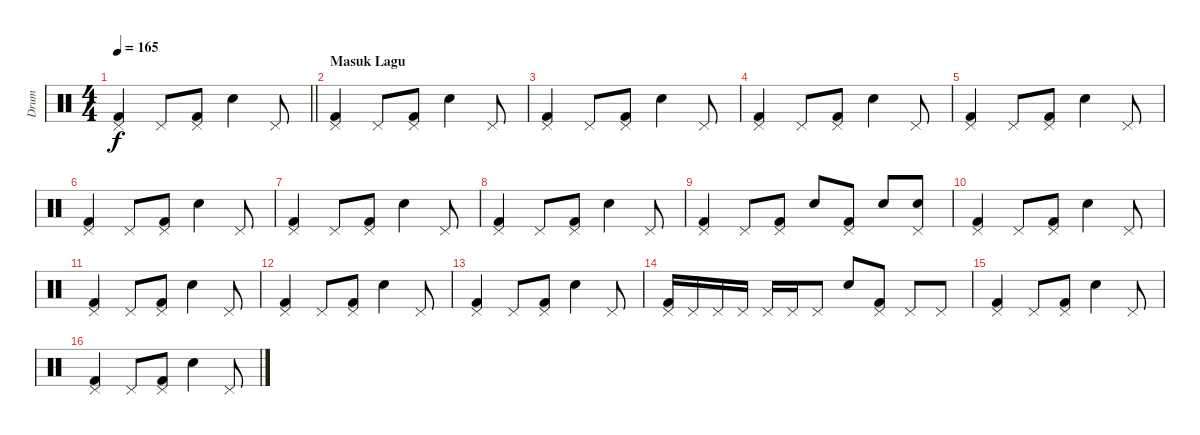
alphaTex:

\track ("Drum" "Drum") {instrument percussion}
\staff {score}
\articulation defaults
\ts (4 4)
\tempo 165
\clef neutral
\barLineRight lightlight
\ks c
("Kick (hit) 2" "Pedal Hi-Hat (hit)").4{dy f} "Pedal Hi-Hat (hit)".8 ("Kick (hit) 2" "Pedal Hi-Hat (hit)").8 "Electric Snare (hit)".4 "Pedal Hi-Hat (hit)".8 |
\section ("" "Masuk Lagu")
("Kick (hit) 2" "Pedal Hi-Hat (hit)").4 "Pedal Hi-Hat (hit)".8 ("Kick (hit) 2" "Pedal Hi-Hat (hit)").8 "Electric Snare (hit)".4 "Pedal Hi-Hat (hit)".8 |
("Kick (hit) 2" "Pedal Hi-Hat (hit)").4 "Pedal Hi-Hat (hit)".8 ("Kick (hit) 2" "Pedal Hi-Hat (hit)").8 "Electric Snare (hit)".4 "Pedal Hi-Hat (hit)".8 |
("Kick (hit) 2" "Pedal Hi-Hat (hit)").4 "Pedal Hi-Hat (hit)".8 ("Kick (hit) 2" "Pedal Hi-Hat (hit)").8 "Electric Snare (hit)".4 "Pedal Hi-Hat (hit)".8 |
("Kick (hit) 2" "Pedal Hi-Hat (hit)").4 "Pedal Hi-Hat (hit)".8 ("Kick (hit) 2" "Pedal Hi-Hat (hit)").8 "Electric Snare (hit)".4 "Pedal Hi-Hat (hit)".8 |
("Kick (hit) 2" "Pedal Hi-Hat (hit)").4 "Pedal Hi-Hat (hit)".8 ("Kick (hit) 2" "Pedal Hi-Hat (hit)").8 "Electric Snare (hit)".4 "Pedal Hi-Hat (hit)".8 |
("Kick (hit) 2" "Pedal Hi-Hat (hit)").4 "Pedal Hi-Hat (hit)".8 ("Kick (hit) 2" "Pedal Hi-Hat (hit)").8 "Electric Snare (hit)".4 "Pedal Hi-Hat (hit)".8 |
("Kick (hit) 2" "Pedal Hi-Hat (hit)").4 "Pedal Hi-Hat (hit)".8 ("Kick (hit) 2" "Pedal Hi-Hat (hit)").8 "Electric Snare (hit)".4 "Pedal Hi-Hat (hit)".8 |
("Kick (hit) 2" "Pedal Hi-Hat (hit)").4 "Pedal Hi-Hat (hit)".8 ("Kick (hit) 2" "Pedal Hi-Hat (hit)").8 "Electric Snare (hit)".8 ("Kick (hit) 2" "Pedal Hi-Hat (hit)").8 "Electric Snare (hit)".8 ("Electric Snare (hit)" "Pedal Hi-Hat (hit)").8 |
("Kick (hit) 2" "Pedal Hi-Hat (hit)").4 "Pedal Hi-Hat (hit)".8 ("Kick (hit) 2" "Pedal Hi-Hat (hit)").8 "Electric Snare (hit)".4 "Pedal Hi-Hat (hit)".8 |
("Kick (hit) 2" "Pedal Hi-Hat (hit)").4 "Pedal Hi-Hat (hit)".8 ("Kick (hit) 2" "Pedal Hi-Hat (hit)").8 "Electric Snare (hit)".4 "Pedal Hi-Hat (hit)".8 |
("Kick (hit) 2" "Pedal Hi-Hat (hit)").4 "Pedal Hi-Hat (hit)".8 ("Kick (hit) 2" "Pedal Hi-Hat (hit)").8 "Electric Snare (hit)".4 "Pedal Hi-Hat (hit)".8 |
("Kick (hit) 2" "Pedal Hi-Hat (hit)").4 "Pedal Hi-Hat (hit)".8 ("Kick (hit) 2" "Pedal Hi-Hat (hit)").8 "Electric Snare (hit)".4 "Pedal Hi-Hat (hit)".8 |
("Kick (hit) 2" "Pedal Hi-Hat (hit)").16 "Pedal Hi-Hat (hit)".16 "Pedal Hi-Hat (hit)".16 "Pedal Hi-Hat (hit)".16 "Pedal Hi-Hat (hit)".16 "Pedal Hi-Hat (hit)".16 "Pedal Hi-Hat (hit)".8 "Electric Snare (hit)".8 ("Kick (hit) 2" "Pedal Hi-Hat (hit)").8 "Pedal Hi-Hat (hit)".8 "Pedal Hi-Hat (hit)".8 |
("Kick (hit) 2" "Pedal Hi-Hat (hit)").4 "Pedal Hi-Hat (hit)".8 ("Kick (hit) 2" "Pedal Hi-Hat (hit)").8 "Electric Snare (hit)".4 "Pedal Hi-Hat (hit)".8 |
("Kick (hit) 2" "Pedal Hi-Hat (hit)").4 "Pedal Hi-Hat (hit)".8 ("Kick (hit) 2" "Pedal Hi-Hat (hit)").8 "Electric Snare (hit)".4 "Pedal Hi-Hat (hit)".8
